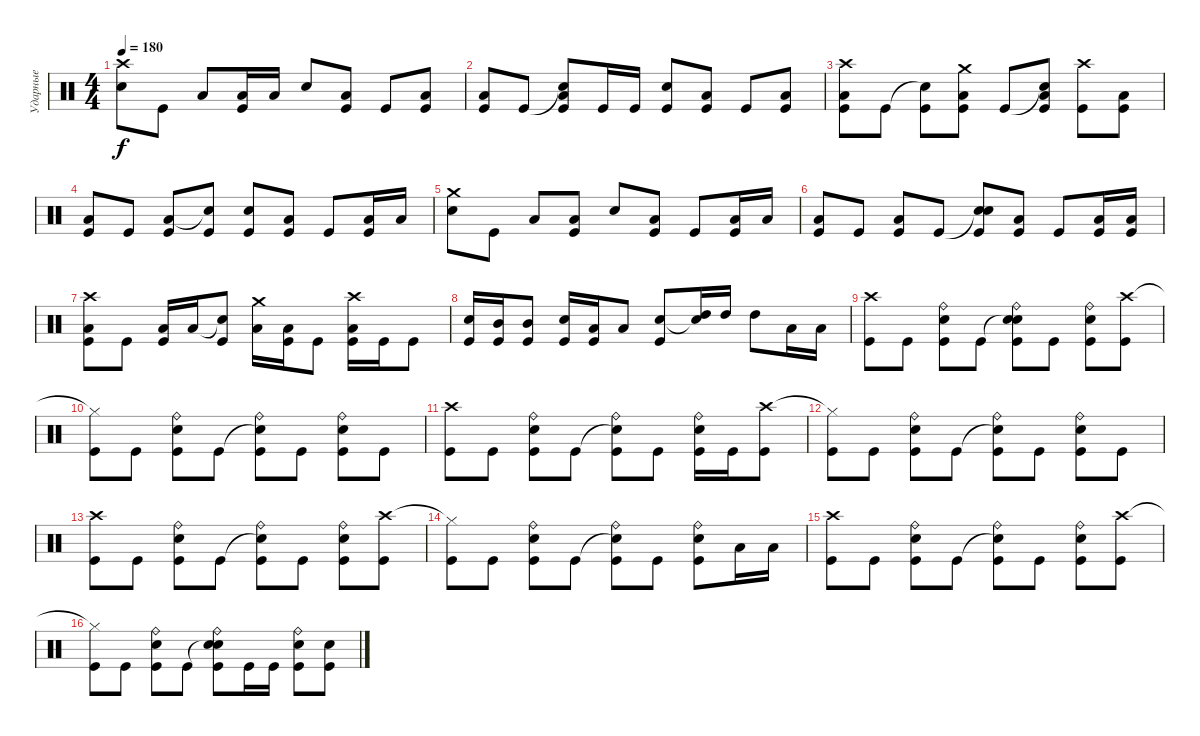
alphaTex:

\track ("Ударные" "Ударные") {instrument percussion}
\staff {score}
\articulation defaults
\ts (4 4)
\tempo 180
\clef neutral
\ks c
("Crash high (hit)" "Electric Snare (hit)").8{dy f} "Kick (hit)".8 "Low Tom (hit)".8 ("Low Tom (hit)" "Kick (hit)").16 "Low Tom (hit)".16 "Electric Snare (hit)".8 ("Low Tom (hit)" "Kick (hit)").8 "Kick (hit)".8 ("Low Tom (hit)" "Kick (hit)").8 |
("Low Tom (hit)" "Kick (hit)").8 "Kick (hit)".8 ("Snare (hit)"{t} "Low Tom (hit)" "Kick (hit)").8 "Kick (hit)".16 "Kick (hit)".16 ("Electric Snare (hit)" "Kick (hit)").8 ("Low Tom (hit)" "Kick (hit)").8 "Kick (hit)".8 ("Low Tom (hit)" "Kick (hit)").8 |
("Crash high (hit)" "Low Tom (hit)" "Kick (hit)").8 "Kick (hit)".8 ("Snare (hit)"{t} "Kick (hit)").8 ("Crash medium (hit)" "Low Tom (hit)" "Kick (hit)").8 "Kick (hit)".8 ("Snare (hit)"{t} "Low Tom (hit)" "Kick (hit)").8 ("Crash high (hit)" "Kick (hit)").8 ("Low Tom (hit)" "Kick (hit)").8 |
("Low Tom (hit)" "Kick (hit)").8 "Kick (hit)".8 ("Low Tom (hit)" "Kick (hit)").8 ("Snare (hit)"{t} "Kick (hit)").8 ("Electric Snare (hit)" "Kick (hit)").8 ("Low Tom (hit)" "Kick (hit)").8 "Kick (hit)".8 ("Low Tom (hit)" "Kick (hit)").16 "Low Tom (hit)".16 |
("Crash medium (hit)" "Electric Snare (hit)").8 "Kick (hit)".8 "Low Tom (hit)".8 ("Low Tom (hit)" "Kick (hit)").8 "Electric Snare (hit)".8 ("Low Tom (hit)" "Kick (hit)").8 "Kick (hit)".8 ("Low Tom (hit)" "Kick (hit)").16 "Low Tom (hit)".16 |
("Low Tom (hit)" "Kick (hit)").8 "Kick (hit)".8 ("Low Tom (hit)" "Kick (hit)").8 "Kick (hit)".8 ("Snare (hit)"{t} "Electric Snare (hit)" "Kick (hit)").8 ("Low Tom (hit)" "Kick (hit)").8 "Kick (hit)".8 ("Low Tom (hit)" "Kick (hit)").16 ("Low Tom (hit)" "Kick (hit)").16 |
("Crash high (hit)" "Low Tom (hit)" "Kick (hit)").8 "Kick (hit)".8 ("Low Tom (hit)" "Kick (hit)").16 "Low Tom (hit)".16 ("Snare (hit)"{t} "Kick (hit)").8 ("Crash medium (hit)" "Low Tom (hit)").16 ("Low Tom (hit)" "Kick (hit)").16 "Kick (hit)".8 ("Crash high (hit)" "Low Tom (hit)" "Kick (hit)").16 "Kick (hit)".16 "Kick (hit)".8 |
("Electric Snare (hit)" "Kick (hit)").16 ("Mid Tom (hit)" "Kick (hit)").16 ("Mid Tom (hit)" "Kick (hit)").8 ("Electric Snare (hit)" "Kick (hit)").16 ("Low Tom (hit)" "Kick (hit)").16 "Low Tom (hit)".8 ("Electric Snare (hit)" "Kick (hit)").8 ("Snare (hit)"{t} "High Tom (hit)").16 "High Tom (hit)".16 "High Tom (hit)".8 "Low Tom (hit)".16 "Low Tom (hit)".16 |
("Crash high (hit)" "Kick (hit)").8 "Kick (hit)".8 ("Ride (bell)" "Electric Snare (hit)" "Kick (hit)").8 "Kick (hit)".8 ("Snare (hit)"{t} "Ride (bell)" "Electric Snare (hit)" "Kick (hit)").8 "Kick (hit)".8 ("Ride (bell)" "Electric Snare (hit)" "Kick (hit)").8 ("Crash high (hit)" "Kick (hit)").8 |
("Hi-Hat (closed)"{t} "Kick (hit)").8 "Kick (hit)".8 ("Ride (bell)" "Electric Snare (hit)" "Kick (hit)").8 "Kick (hit)".8 ("Snare (hit)"{t} "Ride (bell)" "Kick (hit)").8 "Kick (hit)".8 ("Ride (bell)" "Electric Snare (hit)" "Kick (hit)").8 "Kick (hit)".8 |
("Crash high (hit)" "Kick (hit)").8 "Kick (hit)".8 ("Ride (bell)" "Electric Snare (hit)" "Kick (hit)").8 "Kick (hit)".8 ("Snare (hit)"{t} "Ride (bell)" "Kick (hit)").8 "Kick (hit)".8 ("Ride (bell)" "Electric Snare (hit)" "Kick (hit)").16 "Kick (hit)".16 ("Crash high (hit)" "Kick (hit)").8 |
("Hi-Hat (closed)"{t} "Kick (hit)").8 "Kick (hit)".8 ("Ride (bell)" "Electric Snare (hit)" "Kick (hit)").8 "Kick (hit)".8 ("Snare (hit)"{t} "Ride (bell)" "Kick (hit)").8 "Kick (hit)".8 ("Ride (bell)" "Electric Snare (hit)" "Kick (hit)").8 "Kick (hit)".8 |
("Crash high (hit)" "Kick (hit)").8 "Kick (hit)".8 ("Ride (bell)" "Electric Snare (hit)" "Kick (hit)").8 "Kick (hit)".8 ("Snare (hit)"{t} "Ride (bell)" "Kick (hit)").8 "Kick (hit)".8 ("Ride (bell)" "Electric Snare (hit)" "Kick (hit)").8 ("Crash high (hit)" "Kick (hit)").8 |
("Hi-Hat (closed)"{t} "Kick (hit)").8 "Kick (hit)".8 ("Ride (bell)" "Electric Snare (hit)" "Kick (hit)").8 "Kick (hit)".8 ("Snare (hit)"{t} "Ride (bell)" "Kick (hit)").8 "Kick (hit)".8 ("Ride (bell)" "Electric Snare (hit)" "Kick (hit)").8 "Low Tom (hit)".16 "Low Tom (hit)".16 |
("Crash high (hit)" "Kick (hit)").8 "Kick (hit)".8 ("Ride (bell)" "Electric Snare (hit)" "Kick (hit)").8 "Kick (hit)".8 ("Snare (hit)"{t} "Ride (bell)" "Kick (hit)").8 "Kick (hit)".8 ("Ride (bell)" "Electric Snare (hit)" "Kick (hit)").8 ("Crash high (hit)" "Kick (hit)").8 |
("Hi-Hat (closed)"{t} "Kick (hit)").8 "Kick (hit)".8 ("Ride (bell)" "Electric Snare (hit)" "Kick (hit)").8 "Kick (hit)".8 ("Snare (hit)"{t} "Ride (bell)" "Electric Snare (hit)" "Kick (hit)").8 "Kick (hit)".16 "Kick (hit)".16 ("Ride (bell)" "Electric Snare (hit)" "Kick (hit)").8 ("Electric Snare (hit)" "Kick (hit)").8
